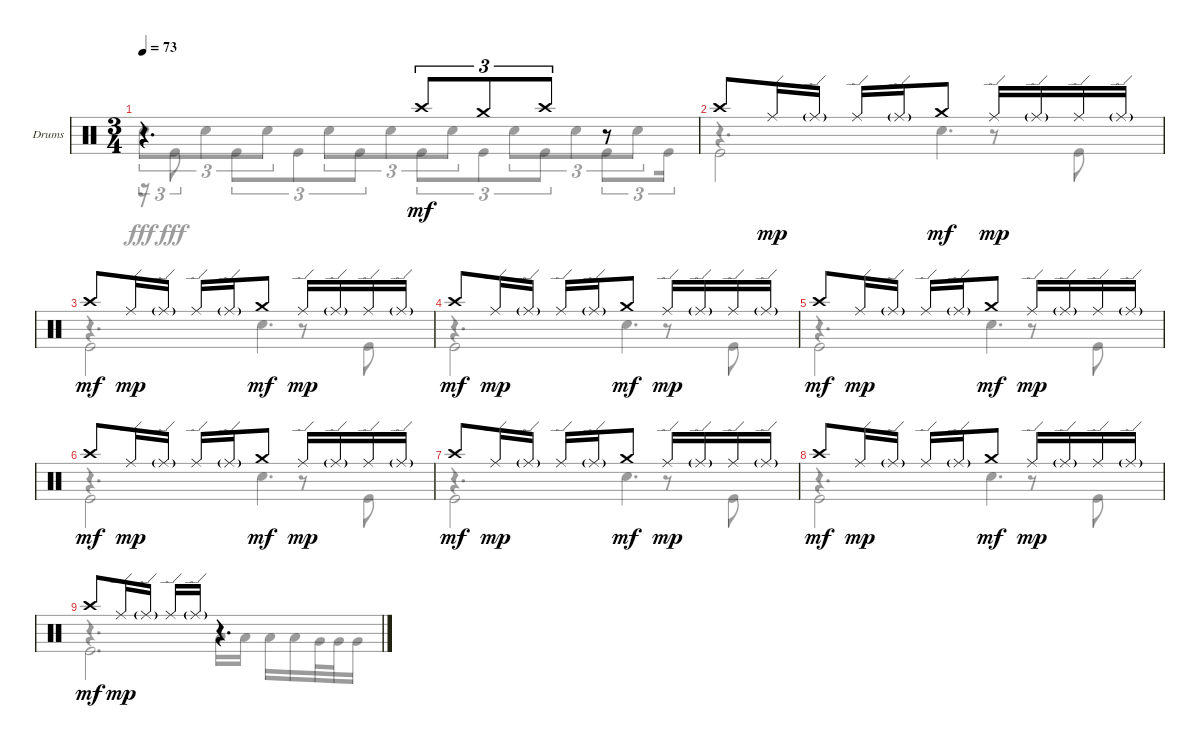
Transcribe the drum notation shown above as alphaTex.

\defaultSystemsLayout 4
\bracketExtendMode groupsimilarinstruments
\firstSystemTrackNameOrientation horizontal
\otherSystemsTrackNameOrientation horizontal
\track ("Drumkit" "Drums") {instrument percussion}
\staff {score}
\articulation defaults
\voice
\ts (3 4)
\tempo 73
\clef neutral
\ks c
r.4{d dy mp} "Crash high (hit)".8{tu (3 2) dy mf} "Crash medium (hit)".8{tu (3 2)} "Crash high (hit)".8{tu (3 2)} r.8 |
"Crash high (hit)".8 "Ride (edge)".16{dy mp} "Ride (edge)"{g}.16 "Ride (edge)".16 "Ride (edge)"{g}.16 "Crash medium (hit)".8{dy mf} "Ride (edge)".16{dy mp} "Ride (edge)"{g}.16 "Ride (edge)".16 "Ride (edge)"{g}.16 |
"Crash high (hit)".8{dy mf} "Ride (edge)".16{dy mp} "Ride (edge)"{g}.16 "Ride (edge)".16 "Ride (edge)"{g}.16 "Crash medium (hit)".8{dy mf} "Ride (edge)".16{dy mp} "Ride (edge)"{g}.16 "Ride (edge)".16 "Ride (edge)"{g}.16 |
"Crash high (hit)".8{dy mf} "Ride (edge)".16{dy mp} "Ride (edge)"{g}.16 "Ride (edge)".16 "Ride (edge)"{g}.16 "Crash medium (hit)".8{dy mf} "Ride (edge)".16{dy mp} "Ride (edge)"{g}.16 "Ride (edge)".16 "Ride (edge)"{g}.16 |
"Crash high (hit)".8{dy mf} "Ride (edge)".16{dy mp} "Ride (edge)"{g}.16 "Ride (edge)".16 "Ride (edge)"{g}.16 "Crash medium (hit)".8{dy mf} "Ride (edge)".16{dy mp} "Ride (edge)"{g}.16 "Ride (edge)".16 "Ride (edge)"{g}.16 |
"Crash high (hit)".8{dy mf} "Ride (edge)".16{dy mp} "Ride (edge)"{g}.16 "Ride (edge)".16 "Ride (edge)"{g}.16 "Crash medium (hit)".8{dy mf} "Ride (edge)".16{dy mp} "Ride (edge)"{g}.16 "Ride (edge)".16 "Ride (edge)"{g}.16 |
"Crash high (hit)".8{dy mf} "Ride (edge)".16{dy mp} "Ride (edge)"{g}.16 "Ride (edge)".16 "Ride (edge)"{g}.16 "Crash medium (hit)".8{dy mf} "Ride (edge)".16{dy mp} "Ride (edge)"{g}.16 "Ride (edge)".16 "Ride (edge)"{g}.16 |
"Crash high (hit)".8{dy mf} "Ride (edge)".16{dy mp} "Ride (edge)"{g}.16 "Ride (edge)".16 "Ride (edge)"{g}.16 "Crash medium (hit)".8{dy mf} "Ride (edge)".16{dy mp} "Ride (edge)"{g}.16 "Ride (edge)".16 "Ride (edge)"{g}.16 |
"Crash high (hit)".8{dy mf} "Ride (edge)".16{dy mp} "Ride (edge)"{g}.16 "Ride (edge)".16 "Ride (edge)"{g}.16 r.4{d} |
\voice
\clef neutral
\ottava regular
\simile none
\ks c "Snare (hit) 2".8{tu (3 2) dy fff} "Snare (hit) 2".8{tu (3 2)} "Snare (hit) 2".8{tu (3 2)} "Snare (hit) 2".8{tu (3 2)} "Snare (hit) 2".8{tu (3 2)} "Snare (hit) 2".8{tu (3 2)} "Snare (hit) 2".8{tu (3 2)} "Snare (hit) 2".8{tu (3 2)} "Snare (hit) 2".8{tu (3 2)}
|
r.4{d} "Snare (hit) 2".4{d} |
r.4{d} "Snare (hit) 2".4{d} |
r.4{d} "Snare (hit) 2".4{d} |
r.4{d} "Snare (hit) 2".4{d} |
r.4{d} "Snare (hit) 2".4{d} |
r.4{d} "Snare (hit) 2".4{d} |
r.4{d} "Snare (hit) 2".4{d} |
r.4{d} "Low Tom (hit)".16 "Low Tom (hit)".16 "Low Tom (hit)".16 "Low Tom (hit)".16 "Very Low Tom (hit)".32 "Very Low Tom (hit)".32 "Very Low Tom (hit)".16 |
\voice
\clef neutral
\ottava regular
\simile none
\ks c
r.16{tu (3 2) dy fff} "Kick (hit)".8{tu (3 2)} "Kick (hit)".8{tu (3 2)} "Kick (hit)".8{tu (3 2)} "Kick (hit)".8{tu (3 2)} "Kick (hit)".8{tu (3 2)} "Kick (hit)".8{tu (3 2)} "Kick (hit)".8{tu (3 2)} "Kick (hit)".8{tu (3 2)} "Kick (hit)".16{tu (3 2)} |
"Kick (hit)".2 r.8 "Kick (hit)".8 |
"Kick (hit)".2 r.8 "Kick (hit)".8 |
"Kick (hit)".2 r.8 "Kick (hit)".8 |
"Kick (hit)".2 r.8 "Kick (hit)".8 |
"Kick (hit)".2 r.8 "Kick (hit)".8 |
"Kick (hit)".2 r.8 "Kick (hit)".8 |
"Kick (hit)".2 r.8 "Kick (hit)".8 |
"Kick (hit)".2{d} |
